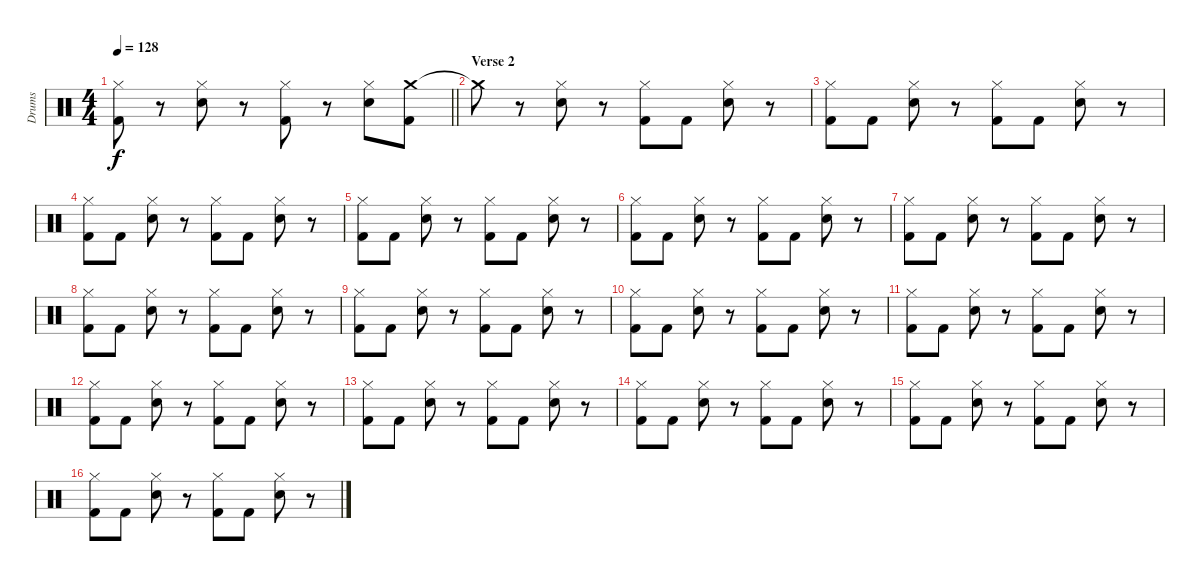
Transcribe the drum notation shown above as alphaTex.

\track ("Drums" "Drums") {instrument percussion}
\staff {score}
\articulation defaults
\ts (4 4)
\tempo 128
\clef neutral
\barLineRight lightlight
\ks c
("Hi-Hat (closed)" "Kick (hit) 2").8{dy f} r.8 ("Hi-Hat (closed)" "Snare (hit) 2").8 r.8 ("Hi-Hat (closed)" "Kick (hit) 2").8 r.8 ("Hi-Hat (closed)" "Snare (hit) 2").8 ("Crash medium (hit)" "Kick (hit) 2").8 |
\section ("" "Verse 2")
"Crash medium (hit)"{t}.8 r.8 ("Hi-Hat (closed)" "Snare (hit) 2").8 r.8 ("Hi-Hat (closed)" "Kick (hit) 2").8 "Kick (hit) 2".8 ("Hi-Hat (closed)" "Snare (hit) 2").8 r.8 |
("Hi-Hat (closed)" "Kick (hit) 2").8 "Kick (hit) 2".8 ("Hi-Hat (closed)" "Snare (hit) 2").8 r.8 ("Hi-Hat (closed)" "Kick (hit) 2").8 "Kick (hit) 2".8 ("Hi-Hat (closed)" "Snare (hit) 2").8 r.8 |
("Hi-Hat (closed)" "Kick (hit) 2").8 "Kick (hit) 2".8 ("Hi-Hat (closed)" "Snare (hit) 2").8 r.8 ("Hi-Hat (closed)" "Kick (hit) 2").8 "Kick (hit) 2".8 ("Hi-Hat (closed)" "Snare (hit) 2").8 r.8 |
("Hi-Hat (closed)" "Kick (hit) 2").8 "Kick (hit) 2".8 ("Hi-Hat (closed)" "Snare (hit) 2").8 r.8 ("Hi-Hat (closed)" "Kick (hit) 2").8 "Kick (hit) 2".8 ("Hi-Hat (closed)" "Snare (hit) 2").8 r.8 |
("Hi-Hat (closed)" "Kick (hit) 2").8 "Kick (hit) 2".8 ("Hi-Hat (closed)" "Snare (hit) 2").8 r.8 ("Hi-Hat (closed)" "Kick (hit) 2").8 "Kick (hit) 2".8 ("Hi-Hat (closed)" "Snare (hit) 2").8 r.8 |
("Hi-Hat (closed)" "Kick (hit) 2").8 "Kick (hit) 2".8 ("Hi-Hat (closed)" "Snare (hit) 2").8 r.8 ("Hi-Hat (closed)" "Kick (hit) 2").8 "Kick (hit) 2".8 ("Hi-Hat (closed)" "Snare (hit) 2").8 r.8 |
("Hi-Hat (closed)" "Kick (hit) 2").8 "Kick (hit) 2".8 ("Hi-Hat (closed)" "Snare (hit) 2").8 r.8 ("Hi-Hat (closed)" "Kick (hit) 2").8 "Kick (hit) 2".8 ("Hi-Hat (closed)" "Snare (hit) 2").8 r.8 |
("Hi-Hat (closed)" "Kick (hit) 2").8 "Kick (hit) 2".8 ("Hi-Hat (closed)" "Snare (hit) 2").8 r.8 ("Hi-Hat (closed)" "Kick (hit) 2").8 "Kick (hit) 2".8 ("Hi-Hat (closed)" "Snare (hit) 2").8 r.8 |
("Hi-Hat (closed)" "Kick (hit) 2").8 "Kick (hit) 2".8 ("Hi-Hat (closed)" "Snare (hit) 2").8 r.8 ("Hi-Hat (closed)" "Kick (hit) 2").8 "Kick (hit) 2".8 ("Hi-Hat (closed)" "Snare (hit) 2").8 r.8 |
("Hi-Hat (closed)" "Kick (hit) 2").8 "Kick (hit) 2".8 ("Hi-Hat (closed)" "Snare (hit) 2").8 r.8 ("Hi-Hat (closed)" "Kick (hit) 2").8 "Kick (hit) 2".8 ("Hi-Hat (closed)" "Snare (hit) 2").8 r.8 |
("Hi-Hat (closed)" "Kick (hit) 2").8 "Kick (hit) 2".8 ("Hi-Hat (closed)" "Snare (hit) 2").8 r.8 ("Hi-Hat (closed)" "Kick (hit) 2").8 "Kick (hit) 2".8 ("Hi-Hat (closed)" "Snare (hit) 2").8 r.8 |
("Hi-Hat (closed)" "Kick (hit) 2").8 "Kick (hit) 2".8 ("Hi-Hat (closed)" "Snare (hit) 2").8 r.8 ("Hi-Hat (closed)" "Kick (hit) 2").8 "Kick (hit) 2".8 ("Hi-Hat (closed)" "Snare (hit) 2").8 r.8 |
("Hi-Hat (closed)" "Kick (hit) 2").8 "Kick (hit) 2".8 ("Hi-Hat (closed)" "Snare (hit) 2").8 r.8 ("Hi-Hat (closed)" "Kick (hit) 2").8 "Kick (hit) 2".8 ("Hi-Hat (closed)" "Snare (hit) 2").8 r.8 |
("Hi-Hat (closed)" "Kick (hit) 2").8 "Kick (hit) 2".8 ("Hi-Hat (closed)" "Snare (hit) 2").8 r.8 ("Hi-Hat (closed)" "Kick (hit) 2").8 "Kick (hit) 2".8 ("Hi-Hat (closed)" "Snare (hit) 2").8 r.8 |
("Hi-Hat (closed)" "Kick (hit) 2").8 "Kick (hit) 2".8 ("Hi-Hat (closed)" "Snare (hit) 2").8 r.8 ("Hi-Hat (closed)" "Kick (hit) 2").8 "Kick (hit) 2".8 ("Hi-Hat (closed)" "Snare (hit) 2").8 r.8
